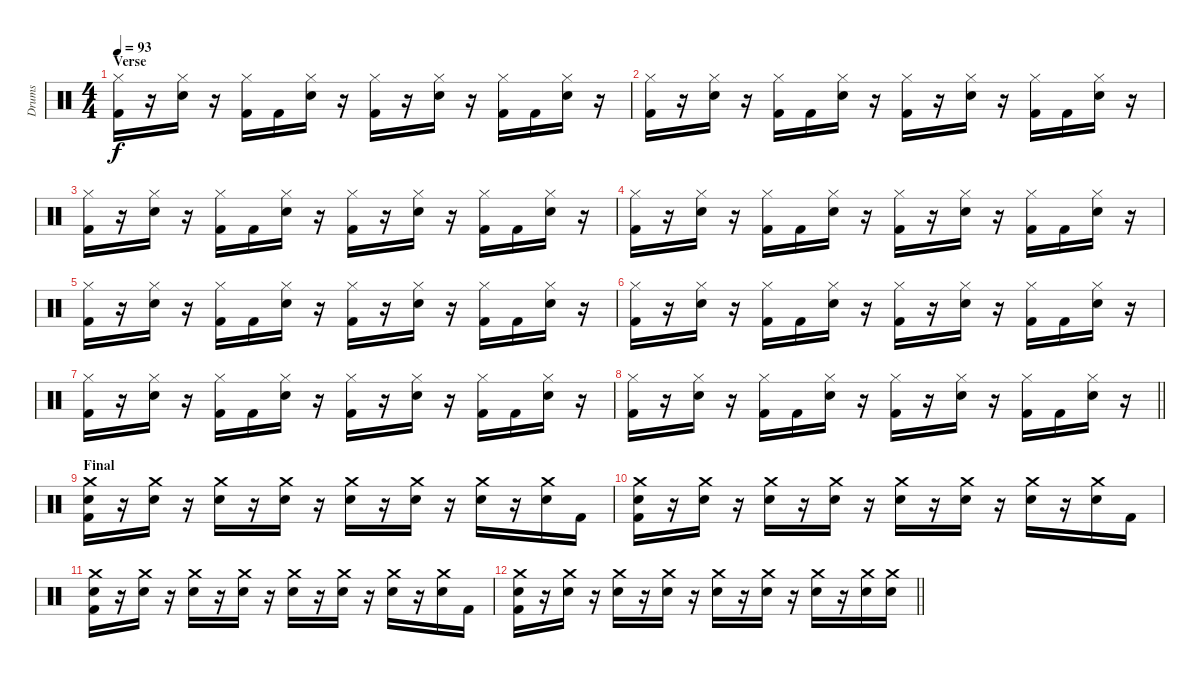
\track ("Drums" "Drums") {instrument percussion}
\staff {score}
\articulation defaults
\ts (4 4)
\section ("" "Verse")
\tempo 93
\clef neutral
\ks c
("Hi-Hat (closed)" "Kick (hit) 2").16{dy f} r.16 ("Hi-Hat (closed)" "Electric Snare (hit)").16 r.16 ("Hi-Hat (closed)" "Kick (hit) 2").16 "Kick (hit) 2".16 ("Hi-Hat (closed)" "Electric Snare (hit)").16 r.16 ("Hi-Hat (closed)" "Kick (hit) 2").16 r.16 ("Hi-Hat (closed)" "Electric Snare (hit)").16 r.16 ("Hi-Hat (closed)" "Kick (hit) 2").16 "Kick (hit) 2".16 ("Hi-Hat (closed)" "Electric Snare (hit)").16 r.16 |
("Hi-Hat (closed)" "Kick (hit) 2").16 r.16 ("Hi-Hat (closed)" "Electric Snare (hit)").16 r.16 ("Hi-Hat (closed)" "Kick (hit) 2").16 "Kick (hit) 2".16 ("Hi-Hat (closed)" "Electric Snare (hit)").16 r.16 ("Hi-Hat (closed)" "Kick (hit) 2").16 r.16 ("Hi-Hat (closed)" "Electric Snare (hit)").16 r.16 ("Hi-Hat (closed)" "Kick (hit) 2").16 "Kick (hit) 2".16 ("Hi-Hat (closed)" "Electric Snare (hit)").16 r.16 |
("Hi-Hat (closed)" "Kick (hit) 2").16 r.16 ("Hi-Hat (closed)" "Electric Snare (hit)").16 r.16 ("Hi-Hat (closed)" "Kick (hit) 2").16 "Kick (hit) 2".16 ("Hi-Hat (closed)" "Electric Snare (hit)").16 r.16 ("Hi-Hat (closed)" "Kick (hit) 2").16 r.16 ("Hi-Hat (closed)" "Electric Snare (hit)").16 r.16 ("Hi-Hat (closed)" "Kick (hit) 2").16 "Kick (hit) 2".16 ("Hi-Hat (closed)" "Electric Snare (hit)").16 r.16 |
("Hi-Hat (closed)" "Kick (hit) 2").16 r.16 ("Hi-Hat (closed)" "Electric Snare (hit)").16 r.16 ("Hi-Hat (closed)" "Kick (hit) 2").16 "Kick (hit) 2".16 ("Hi-Hat (closed)" "Electric Snare (hit)").16 r.16 ("Hi-Hat (closed)" "Kick (hit) 2").16 r.16 ("Hi-Hat (closed)" "Electric Snare (hit)").16 r.16 ("Hi-Hat (closed)" "Kick (hit) 2").16 "Kick (hit) 2".16 ("Hi-Hat (closed)" "Electric Snare (hit)").16 r.16 |
("Hi-Hat (closed)" "Kick (hit) 2").16 r.16 ("Hi-Hat (closed)" "Electric Snare (hit)").16 r.16 ("Hi-Hat (closed)" "Kick (hit) 2").16 "Kick (hit) 2".16 ("Hi-Hat (closed)" "Electric Snare (hit)").16 r.16 ("Hi-Hat (closed)" "Kick (hit) 2").16 r.16 ("Hi-Hat (closed)" "Electric Snare (hit)").16 r.16 ("Hi-Hat (closed)" "Kick (hit) 2").16 "Kick (hit) 2".16 ("Hi-Hat (closed)" "Electric Snare (hit)").16 r.16 |
("Hi-Hat (closed)" "Kick (hit) 2").16 r.16 ("Hi-Hat (closed)" "Electric Snare (hit)").16 r.16 ("Hi-Hat (closed)" "Kick (hit) 2").16 "Kick (hit) 2".16 ("Hi-Hat (closed)" "Electric Snare (hit)").16 r.16 ("Hi-Hat (closed)" "Kick (hit) 2").16 r.16 ("Hi-Hat (closed)" "Electric Snare (hit)").16 r.16 ("Hi-Hat (closed)" "Kick (hit) 2").16 "Kick (hit) 2".16 ("Hi-Hat (closed)" "Electric Snare (hit)").16 r.16 |
("Hi-Hat (closed)" "Kick (hit) 2").16 r.16 ("Hi-Hat (closed)" "Electric Snare (hit)").16 r.16 ("Hi-Hat (closed)" "Kick (hit) 2").16 "Kick (hit) 2".16 ("Hi-Hat (closed)" "Electric Snare (hit)").16 r.16 ("Hi-Hat (closed)" "Kick (hit) 2").16 r.16 ("Hi-Hat (closed)" "Electric Snare (hit)").16 r.16 ("Hi-Hat (closed)" "Kick (hit) 2").16 "Kick (hit) 2".16 ("Hi-Hat (closed)" "Electric Snare (hit)").16 r.16 |
\barLineRight lightlight
("Hi-Hat (closed)" "Kick (hit) 2").16 r.16 ("Hi-Hat (closed)" "Electric Snare (hit)").16 r.16 ("Hi-Hat (closed)" "Kick (hit) 2").16 "Kick (hit) 2".16 ("Hi-Hat (closed)" "Electric Snare (hit)").16 r.16 ("Hi-Hat (closed)" "Kick (hit) 2").16 r.16 ("Hi-Hat (closed)" "Electric Snare (hit)").16 r.16 ("Hi-Hat (closed)" "Kick (hit) 2").16 "Kick (hit) 2".16 ("Hi-Hat (closed)" "Electric Snare (hit)").16 r.16 |
\section ("" "Final")
("Crash medium (hit)" "Electric Snare (hit)" "Kick (hit) 2").16 r.16 ("Crash medium (hit)" "Electric Snare (hit)").16 r.16 ("Crash medium (hit)" "Electric Snare (hit)").16 r.16 ("Crash medium (hit)" "Electric Snare (hit)").16 r.16 ("Crash medium (hit)" "Electric Snare (hit)").16 r.16 ("Crash medium (hit)" "Electric Snare (hit)").16 r.16 ("Crash medium (hit)" "Electric Snare (hit)").16 r.16 ("Crash medium (hit)" "Electric Snare (hit)").16 "Kick (hit) 2".16 |
("Crash medium (hit)" "Electric Snare (hit)" "Kick (hit) 2").16 r.16 ("Crash medium (hit)" "Electric Snare (hit)").16 r.16 ("Crash medium (hit)" "Electric Snare (hit)").16 r.16 ("Crash medium (hit)" "Electric Snare (hit)").16 r.16 ("Crash medium (hit)" "Electric Snare (hit)").16 r.16 ("Crash medium (hit)" "Electric Snare (hit)").16 r.16 ("Crash medium (hit)" "Electric Snare (hit)").16 r.16 ("Crash medium (hit)" "Electric Snare (hit)").16 "Kick (hit) 2".16 |
("Crash medium (hit)" "Electric Snare (hit)" "Kick (hit) 2").16 r.16 ("Crash medium (hit)" "Electric Snare (hit)").16 r.16 ("Crash medium (hit)" "Electric Snare (hit)").16 r.16 ("Crash medium (hit)" "Electric Snare (hit)").16 r.16 ("Crash medium (hit)" "Electric Snare (hit)").16 r.16 ("Crash medium (hit)" "Electric Snare (hit)").16 r.16 ("Crash medium (hit)" "Electric Snare (hit)").16 r.16 ("Crash medium (hit)" "Electric Snare (hit)").16 "Kick (hit) 2".16 |
\barLineRight lightlight
("Crash medium (hit)" "Electric Snare (hit)" "Kick (hit) 2").16 r.16 ("Crash medium (hit)" "Electric Snare (hit)").16 r.16 ("Crash medium (hit)" "Electric Snare (hit)").16 r.16 ("Crash medium (hit)" "Electric Snare (hit)").16 r.16 ("Crash medium (hit)" "Electric Snare (hit)").16 r.16 ("Crash medium (hit)" "Electric Snare (hit)").16 r.16 ("Crash medium (hit)" "Electric Snare (hit)").16 r.16 ("Crash medium (hit)" "Electric Snare (hit)").16 ("Crash medium (hit)" "Electric Snare (hit)").16
